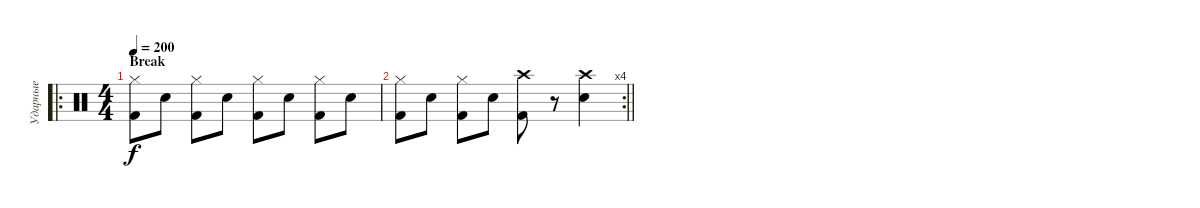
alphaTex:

\track ("Ударные" "Ударные") {instrument percussion}
\staff {score}
\articulation defaults
\ro
\ts (4 4)
\section ("" "Break")
\tempo 200
\clef neutral
\ks c
("Hi-Hat (closed)" "Kick (hit) 2").8{dy f} "Snare (hit) 2".8 ("Hi-Hat (closed)" "Kick (hit) 2").8 "Snare (hit) 2".8 ("Hi-Hat (closed)" "Kick (hit) 2").8 "Snare (hit) 2".8 ("Hi-Hat (closed)" "Kick (hit) 2").8 "Snare (hit) 2".8 |
\rc 4
\barLineRight lightlight
("Hi-Hat (closed)" "Kick (hit) 2").8 "Snare (hit) 2".8 ("Hi-Hat (closed)" "Kick (hit) 2").8 "Snare (hit) 2".8 ("Crash high (hit)" "Kick (hit) 2").8 r.8 ("Crash high (hit)" "Snare (hit) 2").4
